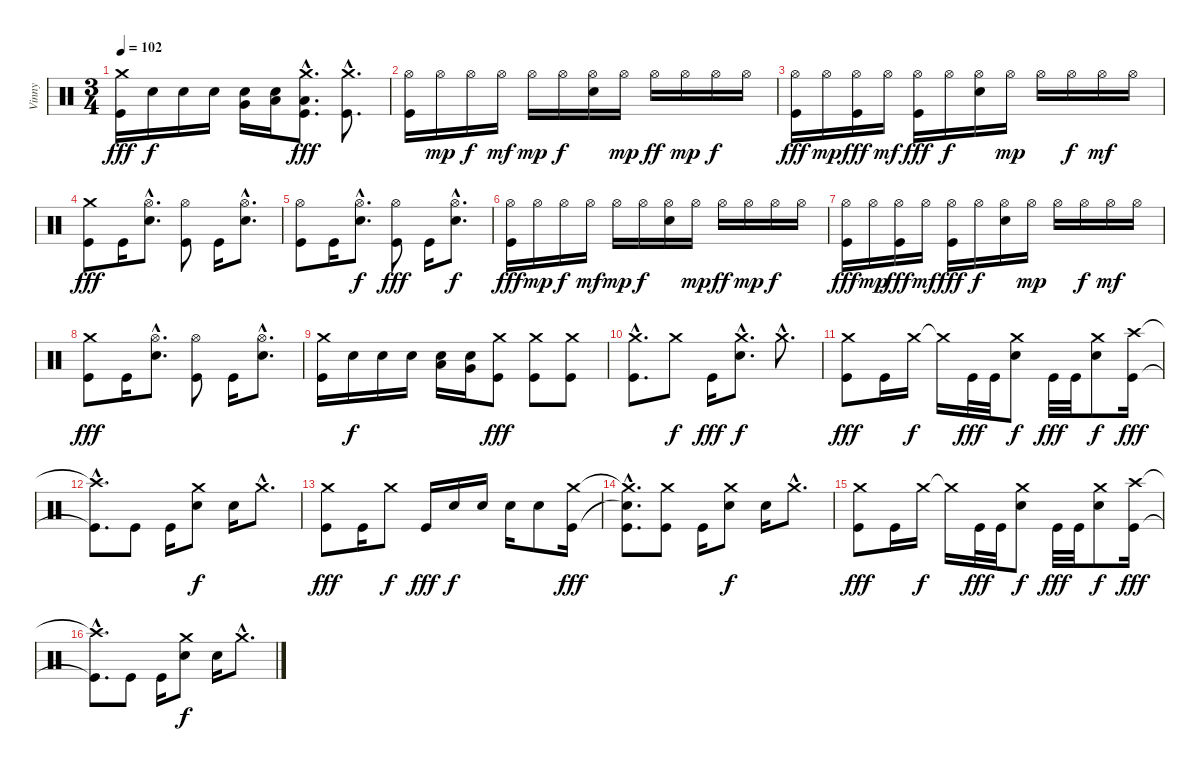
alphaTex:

\track ("Vinny" "Vinny") {instrument percussion}
\staff {score}
\articulation defaults
\ts (3 4)
\tempo 102
\clef neutral
\ks c
("Crash medium (hit)" "Kick (hit)").16{dy fff} "Electric Snare (hit)".16{dy f} "Electric Snare (hit)".16 "Electric Snare (hit)".16 ("Electric Snare (hit)" "Very Low Tom (hit)").16 ("Electric Snare (hit)" "Low Floor Tom (hit)").16 ("Crash medium (hit)"{hac} "Low Floor Tom (hit)"{hac} "Kick (hit)"{hac}).8{d dy fff} ("Crash medium (hit)"{hac} "Kick (hit)"{hac}).8{d} |
("Hi-Hat (open)" "Kick (hit)").16 "Hi-Hat (open)".16{dy mp} "Hi-Hat (open)".16{dy f} "Hi-Hat (open)".16{dy mf} "Hi-Hat (open)".16{dy mp} "Hi-Hat (open)".16{dy f} ("Hi-Hat (open)" "Electric Snare (hit)").16 "Hi-Hat (open)".16{dy mp} "Hi-Hat (open)".16{dy ff} "Hi-Hat (open)".16{dy mp} "Hi-Hat (open)".16{dy f} "Hi-Hat (open)".16 |
("Hi-Hat (open)" "Kick (hit)").16{dy fff} "Hi-Hat (open)".16{dy mp} ("Hi-Hat (open)" "Kick (hit)").16{dy fff} "Hi-Hat (open)".16{dy mf} ("Hi-Hat (open)" "Kick (hit)").16{dy fff} "Hi-Hat (open)".16{dy f} ("Hi-Hat (open)" "Electric Snare (hit)").16 "Hi-Hat (open)".16{dy mp} "Hi-Hat (open)".16 "Hi-Hat (open)".16{dy f} "Hi-Hat (open)".16{dy mf} "Hi-Hat (open)".16 |
("Crash medium (hit)" "Kick (hit)").8{dy fff} "Kick (hit)".16 ("Hi-Hat (open)"{hac} "Electric Snare (hit)").8{d} ("Hi-Hat (open)" "Kick (hit)").8 "Kick (hit)".16 ("Hi-Hat (open)"{hac} "Electric Snare (hit)").8{d} |
("Hi-Hat (open)" "Kick (hit)").8 "Kick (hit)".16 ("Hi-Hat (open)"{hac} "Electric Snare (hit)"{hac}).8{d dy f} ("Hi-Hat (open)" "Kick (hit)").8{dy fff} "Kick (hit)".16 ("Hi-Hat (open)"{hac} "Electric Snare (hit)"{hac}).8{d dy f} |
("Hi-Hat (open)" "Kick (hit)").16{dy fff} "Hi-Hat (open)".16{dy mp} "Hi-Hat (open)".16{dy f} "Hi-Hat (open)".16{dy mf} "Hi-Hat (open)".16{dy mp} "Hi-Hat (open)".16{dy f} ("Hi-Hat (open)" "Electric Snare (hit)").16 "Hi-Hat (open)".16{dy mp} "Hi-Hat (open)".16{dy ff} "Hi-Hat (open)".16{dy mp} "Hi-Hat (open)".16{dy f} "Hi-Hat (open)".16 |
("Hi-Hat (open)" "Kick (hit)").16{dy fff} "Hi-Hat (open)".16{dy mp} ("Hi-Hat (open)" "Kick (hit)").16{dy fff} "Hi-Hat (open)".16{dy mf} ("Hi-Hat (open)" "Kick (hit)").16{dy fff} "Hi-Hat (open)".16{dy f} ("Hi-Hat (open)" "Electric Snare (hit)").16 "Hi-Hat (open)".16{dy mp} "Hi-Hat (open)".16 "Hi-Hat (open)".16{dy f} "Hi-Hat (open)".16{dy mf} "Hi-Hat (open)".16 |
("Crash medium (hit)" "Kick (hit)").8{dy fff} "Kick (hit)".16 ("Hi-Hat (open)"{hac} "Electric Snare (hit)").8{d} ("Hi-Hat (open)" "Kick (hit)").8 "Kick (hit)".16 ("Hi-Hat (open)"{hac} "Electric Snare (hit)"{hac}).8{d} |
("Crash medium (hit)" "Kick (hit)").16 "Electric Snare (hit)".16{dy f} "Electric Snare (hit)".16 "Electric Snare (hit)".16 ("Electric Snare (hit)" "Low Tom (hit)").16 ("Electric Snare (hit)" "Very Low Tom (hit)").16 ("Crash medium (hit)" "Kick (hit)").8{dy fff} ("Crash medium (hit)" "Kick (hit)").8 ("Crash medium (hit)" "Kick (hit)").8 |
\section ("" "")
("Crash medium (hit)"{hac} "Kick (hit)"{hac}).8{d} "Crash medium (hit)".8{dy f} "Kick (hit)".16{dy fff} ("Crash medium (hit)"{hac} "Electric Snare (hit)"{hac}).8{d dy f} "Crash medium (hit)"{hac}.8{d} |
("Crash medium (hit)" "Kick (hit)").8{dy fff} "Kick (hit)".16 "Crash medium (hit)".16{dy f} "Crash medium (hit)"{t}.16 "Kick (hit)".32{dy fff} "Kick (hit)".32 ("Crash medium (hit)" "Electric Snare (hit)").8{dy f} "Kick (hit)".32{dy fff} "Kick (hit)".32 ("Crash medium (hit)" "Electric Snare (hit)").8{dy f} ("Crash high (hit)" "Kick (hit)").16{dy fff} |
("Crash high (hit)"{hac t} "Kick (hit)"{hac t}).8{d} "Kick (hit)".8 "Kick (hit)".16 ("Crash medium (hit)" "Electric Snare (hit)").8{dy f} "Electric Snare (hit)".16 "Crash medium (hit)"{hac}.8{d} |
("Crash medium (hit)" "Kick (hit)").8{dy fff} "Kick (hit)".16 "Crash medium (hit)".8{dy f} "Kick (hit)".16{dy fff} "Electric Snare (hit)".16{dy f} "Electric Snare (hit)".16 "Electric Snare (hit)".16 "Electric Snare (hit)".8 ("Crash medium (hit)" "Kick (hit)").16{dy fff} |
("Crash medium (hit)"{hac t} "Snare (hit)"{hac t} "Kick (hit)"{hac}).8{d} ("Crash medium (hit)" "Kick (hit)").8 "Kick (hit)".16 ("Crash medium (hit)" "Electric Snare (hit)").8{dy f} "Electric Snare (hit)".16 "Crash medium (hit)"{hac}.8{d} |
("Crash medium (hit)" "Kick (hit)").8{dy fff} "Kick (hit)".16 "Crash medium (hit)".16{dy f} "Crash medium (hit)"{t}.16 "Kick (hit)".32{dy fff} "Kick (hit)".32 ("Crash medium (hit)" "Electric Snare (hit)").8{dy f} "Kick (hit)".32{dy fff} "Kick (hit)".32 ("Crash medium (hit)" "Electric Snare (hit)").8{dy f} ("Crash high (hit)" "Kick (hit)").16{dy fff} |
("Crash high (hit)"{hac t} "Kick (hit)"{hac t}).8{d} "Kick (hit)".8 "Kick (hit)".16 ("Crash medium (hit)" "Electric Snare (hit)").8{dy f} "Electric Snare (hit)".16 "Crash medium (hit)"{hac}.8{d}
